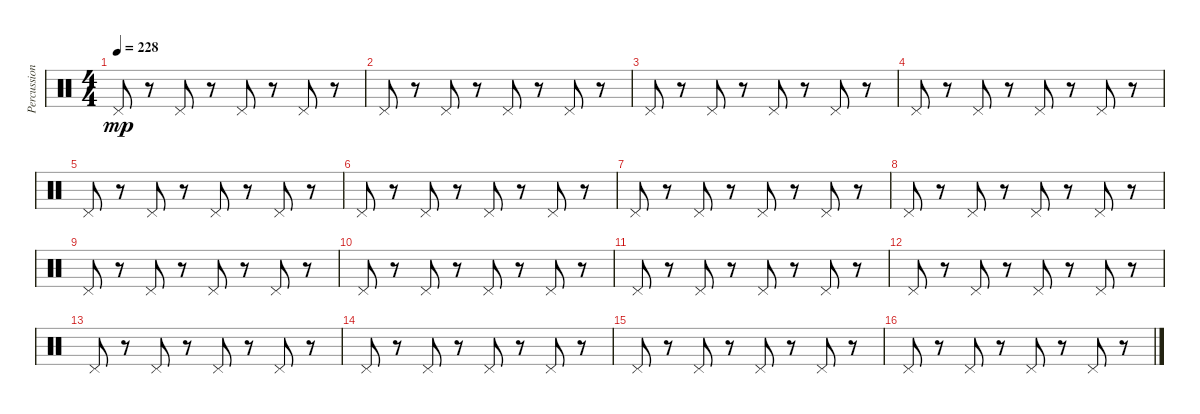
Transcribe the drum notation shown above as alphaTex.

\track ("Percussions" "Percussion") {instrument percussion}
\staff {score}
\articulation defaults
\ts (4 4)
\tempo 228
\clef neutral
\ks c "Pedal Hi-Hat (hit)".8{dy mp}
r.8 "Pedal Hi-Hat (hit)".8 r.8 "Pedal Hi-Hat (hit)".8 r.8 "Pedal Hi-Hat (hit)".8 r.8 |
"Pedal Hi-Hat (hit)".8 r.8 "Pedal Hi-Hat (hit)".8 r.8 "Pedal Hi-Hat (hit)".8 r.8 "Pedal Hi-Hat (hit)".8 r.8 |
"Pedal Hi-Hat (hit)".8 r.8 "Pedal Hi-Hat (hit)".8 r.8 "Pedal Hi-Hat (hit)".8 r.8 "Pedal Hi-Hat (hit)".8 r.8 |
"Pedal Hi-Hat (hit)".8 r.8 "Pedal Hi-Hat (hit)".8 r.8 "Pedal Hi-Hat (hit)".8 r.8 "Pedal Hi-Hat (hit)".8 r.8 |
"Pedal Hi-Hat (hit)".8 r.8 "Pedal Hi-Hat (hit)".8 r.8 "Pedal Hi-Hat (hit)".8 r.8 "Pedal Hi-Hat (hit)".8 r.8 |
"Pedal Hi-Hat (hit)".8 r.8 "Pedal Hi-Hat (hit)".8 r.8 "Pedal Hi-Hat (hit)".8 r.8 "Pedal Hi-Hat (hit)".8 r.8 |
"Pedal Hi-Hat (hit)".8 r.8 "Pedal Hi-Hat (hit)".8 r.8 "Pedal Hi-Hat (hit)".8 r.8 "Pedal Hi-Hat (hit)".8 r.8 |
"Pedal Hi-Hat (hit)".8 r.8 "Pedal Hi-Hat (hit)".8 r.8 "Pedal Hi-Hat (hit)".8 r.8 "Pedal Hi-Hat (hit)".8 r.8 |
"Pedal Hi-Hat (hit)".8 r.8 "Pedal Hi-Hat (hit)".8 r.8 "Pedal Hi-Hat (hit)".8 r.8 "Pedal Hi-Hat (hit)".8 r.8 |
"Pedal Hi-Hat (hit)".8 r.8 "Pedal Hi-Hat (hit)".8 r.8 "Pedal Hi-Hat (hit)".8 r.8 "Pedal Hi-Hat (hit)".8 r.8 |
"Pedal Hi-Hat (hit)".8 r.8 "Pedal Hi-Hat (hit)".8 r.8 "Pedal Hi-Hat (hit)".8 r.8 "Pedal Hi-Hat (hit)".8 r.8 |
"Pedal Hi-Hat (hit)".8 r.8 "Pedal Hi-Hat (hit)".8 r.8 "Pedal Hi-Hat (hit)".8 r.8 "Pedal Hi-Hat (hit)".8 r.8 |
"Pedal Hi-Hat (hit)".8 r.8 "Pedal Hi-Hat (hit)".8 r.8 "Pedal Hi-Hat (hit)".8 r.8 "Pedal Hi-Hat (hit)".8 r.8 |
"Pedal Hi-Hat (hit)".8 r.8 "Pedal Hi-Hat (hit)".8 r.8 "Pedal Hi-Hat (hit)".8 r.8 "Pedal Hi-Hat (hit)".8 r.8 |
"Pedal Hi-Hat (hit)".8 r.8 "Pedal Hi-Hat (hit)".8 r.8 "Pedal Hi-Hat (hit)".8 r.8 "Pedal Hi-Hat (hit)".8 r.8 |
"Pedal Hi-Hat (hit)".8 r.8 "Pedal Hi-Hat (hit)".8 r.8 "Pedal Hi-Hat (hit)".8 r.8 "Pedal Hi-Hat (hit)".8 r.8
